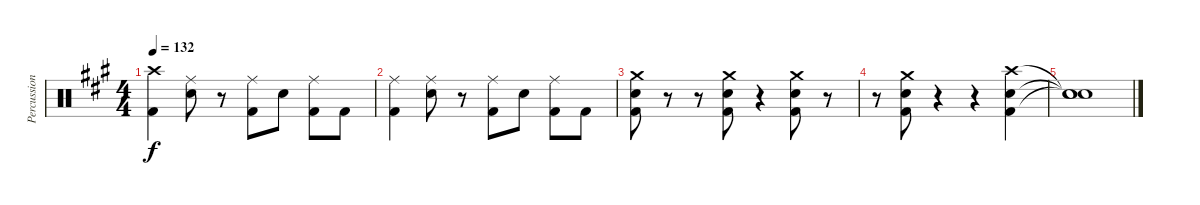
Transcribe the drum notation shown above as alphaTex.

\track ("Percussion" "Percussion") {instrument percussion}
\staff {score}
\articulation defaults
\ts (4 4)
\tempo 132
\clef neutral
\ks a
("Crash high (hit)" "Kick (hit) 2").4{dy f} ("Ride (middle)" "Snare (hit) 2").8 r.8 ("Ride (middle)" "Kick (hit) 2").8 "Snare (hit) 2".8 ("Ride (middle)" "Kick (hit) 2").8 "Kick (hit) 2".8 |
("Ride (middle)" "Kick (hit) 2").4 ("Ride (middle)" "Snare (hit) 2").8 r.8 ("Ride (middle)" "Kick (hit) 2").8 "Snare (hit) 2".8 ("Ride (middle)" "Kick (hit) 2").8 "Kick (hit) 2".8 |
("Crash medium (hit)" "Snare (hit) 2" "Kick (hit) 2").8 r.8 r.8 ("Crash medium (hit)" "Snare (hit) 2" "Kick (hit) 2").8 r.4 ("Crash medium (hit)" "Snare (hit) 2" "Kick (hit) 2").8 r.8 |
r.8 ("Crash medium (hit)" "Snare (hit) 2" "Kick (hit) 2").8 r.4 r.4 ("Crash high (hit)" "Snare (hit) 2" "Kick (hit) 2").4 |
("Snare (hit)"{t} "Snare (hit)"{t} "Snare (hit)"{t}).1
